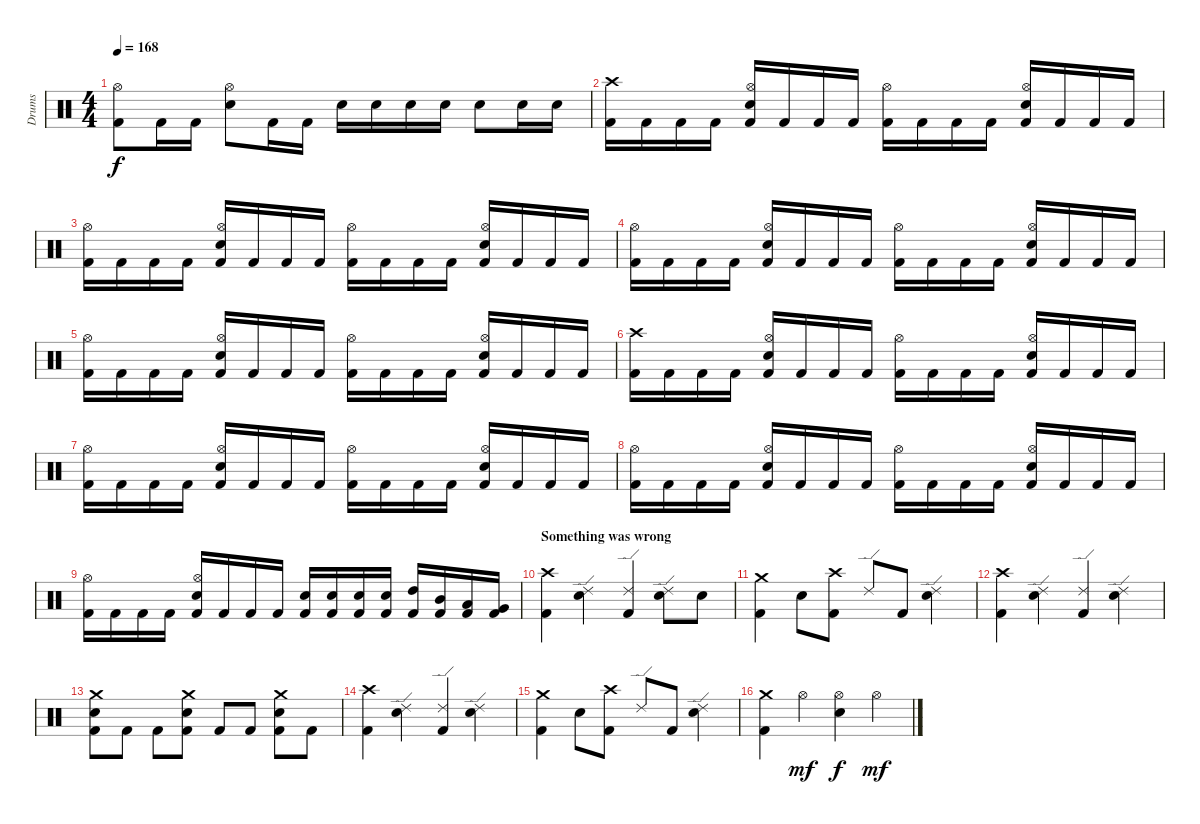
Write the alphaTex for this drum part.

\track ("Drums" "Drums") {instrument percussion}
\staff {score}
\articulation defaults
\ts (4 4)
\tempo 168
\clef neutral
\ks c
("Kick (hit) 2" "Hi-Hat (open)").8{dy f} "Kick (hit) 2".16 "Kick (hit) 2".16 ("Electric Snare (hit)" "Hi-Hat (open)").8 "Kick (hit) 2".16 "Kick (hit) 2".16 "Electric Snare (hit)".16 "Electric Snare (hit)".16 "Electric Snare (hit)".16 "Electric Snare (hit)".16 "Electric Snare (hit)".8 "Electric Snare (hit)".16 "Electric Snare (hit)".16 |
\section ("" "")
("Kick (hit) 2" "Crash high (hit)").16 "Kick (hit) 2".16 "Kick (hit) 2".16 "Kick (hit) 2".16 ("Kick (hit) 2" "Electric Snare (hit)" "Hi-Hat (open)").16 "Kick (hit) 2".16 "Kick (hit) 2".16 "Kick (hit) 2".16 ("Kick (hit) 2" "Hi-Hat (open)").16 "Kick (hit) 2".16 "Kick (hit) 2".16 "Kick (hit) 2".16 ("Kick (hit) 2" "Electric Snare (hit)" "Hi-Hat (open)").16 "Kick (hit) 2".16 "Kick (hit) 2".16 "Kick (hit) 2".16 |
("Kick (hit) 2" "Hi-Hat (open)").16 "Kick (hit) 2".16 "Kick (hit) 2".16 "Kick (hit) 2".16 ("Kick (hit) 2" "Electric Snare (hit)" "Hi-Hat (open)").16 "Kick (hit) 2".16 "Kick (hit) 2".16 "Kick (hit) 2".16 ("Kick (hit) 2" "Hi-Hat (open)").16 "Kick (hit) 2".16 "Kick (hit) 2".16 "Kick (hit) 2".16 ("Kick (hit) 2" "Electric Snare (hit)" "Hi-Hat (open)").16 "Kick (hit) 2".16 "Kick (hit) 2".16 "Kick (hit) 2".16 |
("Kick (hit) 2" "Hi-Hat (open)").16 "Kick (hit) 2".16 "Kick (hit) 2".16 "Kick (hit) 2".16 ("Kick (hit) 2" "Electric Snare (hit)" "Hi-Hat (open)").16 "Kick (hit) 2".16 "Kick (hit) 2".16 "Kick (hit) 2".16 ("Kick (hit) 2" "Hi-Hat (open)").16 "Kick (hit) 2".16 "Kick (hit) 2".16 "Kick (hit) 2".16 ("Kick (hit) 2" "Electric Snare (hit)" "Hi-Hat (open)").16 "Kick (hit) 2".16 "Kick (hit) 2".16 "Kick (hit) 2".16 |
("Kick (hit) 2" "Hi-Hat (open)").16 "Kick (hit) 2".16 "Kick (hit) 2".16 "Kick (hit) 2".16 ("Kick (hit) 2" "Electric Snare (hit)" "Hi-Hat (open)").16 "Kick (hit) 2".16 "Kick (hit) 2".16 "Kick (hit) 2".16 ("Kick (hit) 2" "Hi-Hat (open)").16 "Kick (hit) 2".16 "Kick (hit) 2".16 "Kick (hit) 2".16 ("Kick (hit) 2" "Electric Snare (hit)" "Hi-Hat (open)").16 "Kick (hit) 2".16 "Kick (hit) 2".16 "Kick (hit) 2".16 |
("Kick (hit) 2" "Crash high (hit)").16 "Kick (hit) 2".16 "Kick (hit) 2".16 "Kick (hit) 2".16 ("Kick (hit) 2" "Electric Snare (hit)" "Hi-Hat (open)").16 "Kick (hit) 2".16 "Kick (hit) 2".16 "Kick (hit) 2".16 ("Kick (hit) 2" "Hi-Hat (open)").16 "Kick (hit) 2".16 "Kick (hit) 2".16 "Kick (hit) 2".16 ("Kick (hit) 2" "Electric Snare (hit)" "Hi-Hat (open)").16 "Kick (hit) 2".16 "Kick (hit) 2".16 "Kick (hit) 2".16 |
("Kick (hit) 2" "Hi-Hat (open)").16 "Kick (hit) 2".16 "Kick (hit) 2".16 "Kick (hit) 2".16 ("Kick (hit) 2" "Electric Snare (hit)" "Hi-Hat (open)").16 "Kick (hit) 2".16 "Kick (hit) 2".16 "Kick (hit) 2".16 ("Kick (hit) 2" "Hi-Hat (open)").16 "Kick (hit) 2".16 "Kick (hit) 2".16 "Kick (hit) 2".16 ("Kick (hit) 2" "Electric Snare (hit)" "Hi-Hat (open)").16 "Kick (hit) 2".16 "Kick (hit) 2".16 "Kick (hit) 2".16 |
("Kick (hit) 2" "Hi-Hat (open)").16 "Kick (hit) 2".16 "Kick (hit) 2".16 "Kick (hit) 2".16 ("Kick (hit) 2" "Electric Snare (hit)" "Hi-Hat (open)").16 "Kick (hit) 2".16 "Kick (hit) 2".16 "Kick (hit) 2".16 ("Kick (hit) 2" "Hi-Hat (open)").16 "Kick (hit) 2".16 "Kick (hit) 2".16 "Kick (hit) 2".16 ("Kick (hit) 2" "Electric Snare (hit)" "Hi-Hat (open)").16 "Kick (hit) 2".16 "Kick (hit) 2".16 "Kick (hit) 2".16 |
("Kick (hit) 2" "Hi-Hat (open)").16 "Kick (hit) 2".16 "Kick (hit) 2".16 "Kick (hit) 2".16 ("Kick (hit) 2" "Electric Snare (hit)" "Hi-Hat (open)").16 "Kick (hit) 2".16 "Kick (hit) 2".16 "Kick (hit) 2".16 ("Kick (hit) 2" "Electric Snare (hit)").16 ("Kick (hit) 2" "Electric Snare (hit)").16 ("Kick (hit) 2" "Electric Snare (hit)").16 ("Kick (hit) 2" "Electric Snare (hit)").16 ("Kick (hit) 2" "High Tom (hit)").16 ("Kick (hit) 2" "Mid Tom (hit)").16 ("Kick (hit) 2" "Low Tom (hit)").16 ("Kick (hit) 2" "Very Low Tom (hit)").16 |
\section ("" "Something was wrong")
("Kick (hit) 2" "Crash high (hit)").4 ("Electric Snare (hit)" "Ride (edge) 2").4 ("Kick (hit) 2" "Ride (edge) 2").4 ("Electric Snare (hit)" "Ride (edge) 2").8 "Electric Snare (hit)".8 |
("Kick (hit) 2" "Crash medium (hit)").4 "Electric Snare (hit)".8 ("Kick (hit) 2" "Crash high (hit)").8 "Ride (edge) 2".8 "Kick (hit) 2".8 ("Electric Snare (hit)" "Ride (edge) 2").4 |
("Kick (hit) 2" "Crash high (hit)").4 ("Electric Snare (hit)" "Ride (edge) 2").4 ("Kick (hit) 2" "Ride (edge) 2").4 ("Electric Snare (hit)" "Ride (edge) 2").4 |
("Kick (hit) 2" "Electric Snare (hit)" "Crash medium (hit)").8 "Kick (hit) 2".8 "Kick (hit) 2".8 ("Kick (hit) 2" "Electric Snare (hit)" "Crash medium (hit)").8 "Kick (hit) 2".8 "Kick (hit) 2".8 ("Kick (hit) 2" "Electric Snare (hit)" "Crash medium (hit)").8 "Kick (hit) 2".8 |
("Kick (hit) 2" "Crash high (hit)").4 ("Electric Snare (hit)" "Ride (edge) 2").4 ("Kick (hit) 2" "Ride (edge) 2").4 ("Electric Snare (hit)" "Ride (edge) 2").4 |
("Kick (hit) 2" "Crash medium (hit)").4 "Electric Snare (hit)".8 ("Kick (hit) 2" "Crash high (hit)").8 "Ride (edge) 2".8 "Kick (hit) 2".8 ("Electric Snare (hit)" "Ride (edge) 2").4 |
\section ("" "")
("Kick (hit) 2" "Crash medium (hit)").4 "Hi-Hat (open)".4{dy mf} ("Electric Snare (hit)" "Hi-Hat (open)").4{dy f} "Hi-Hat (open)".4{dy mf}
